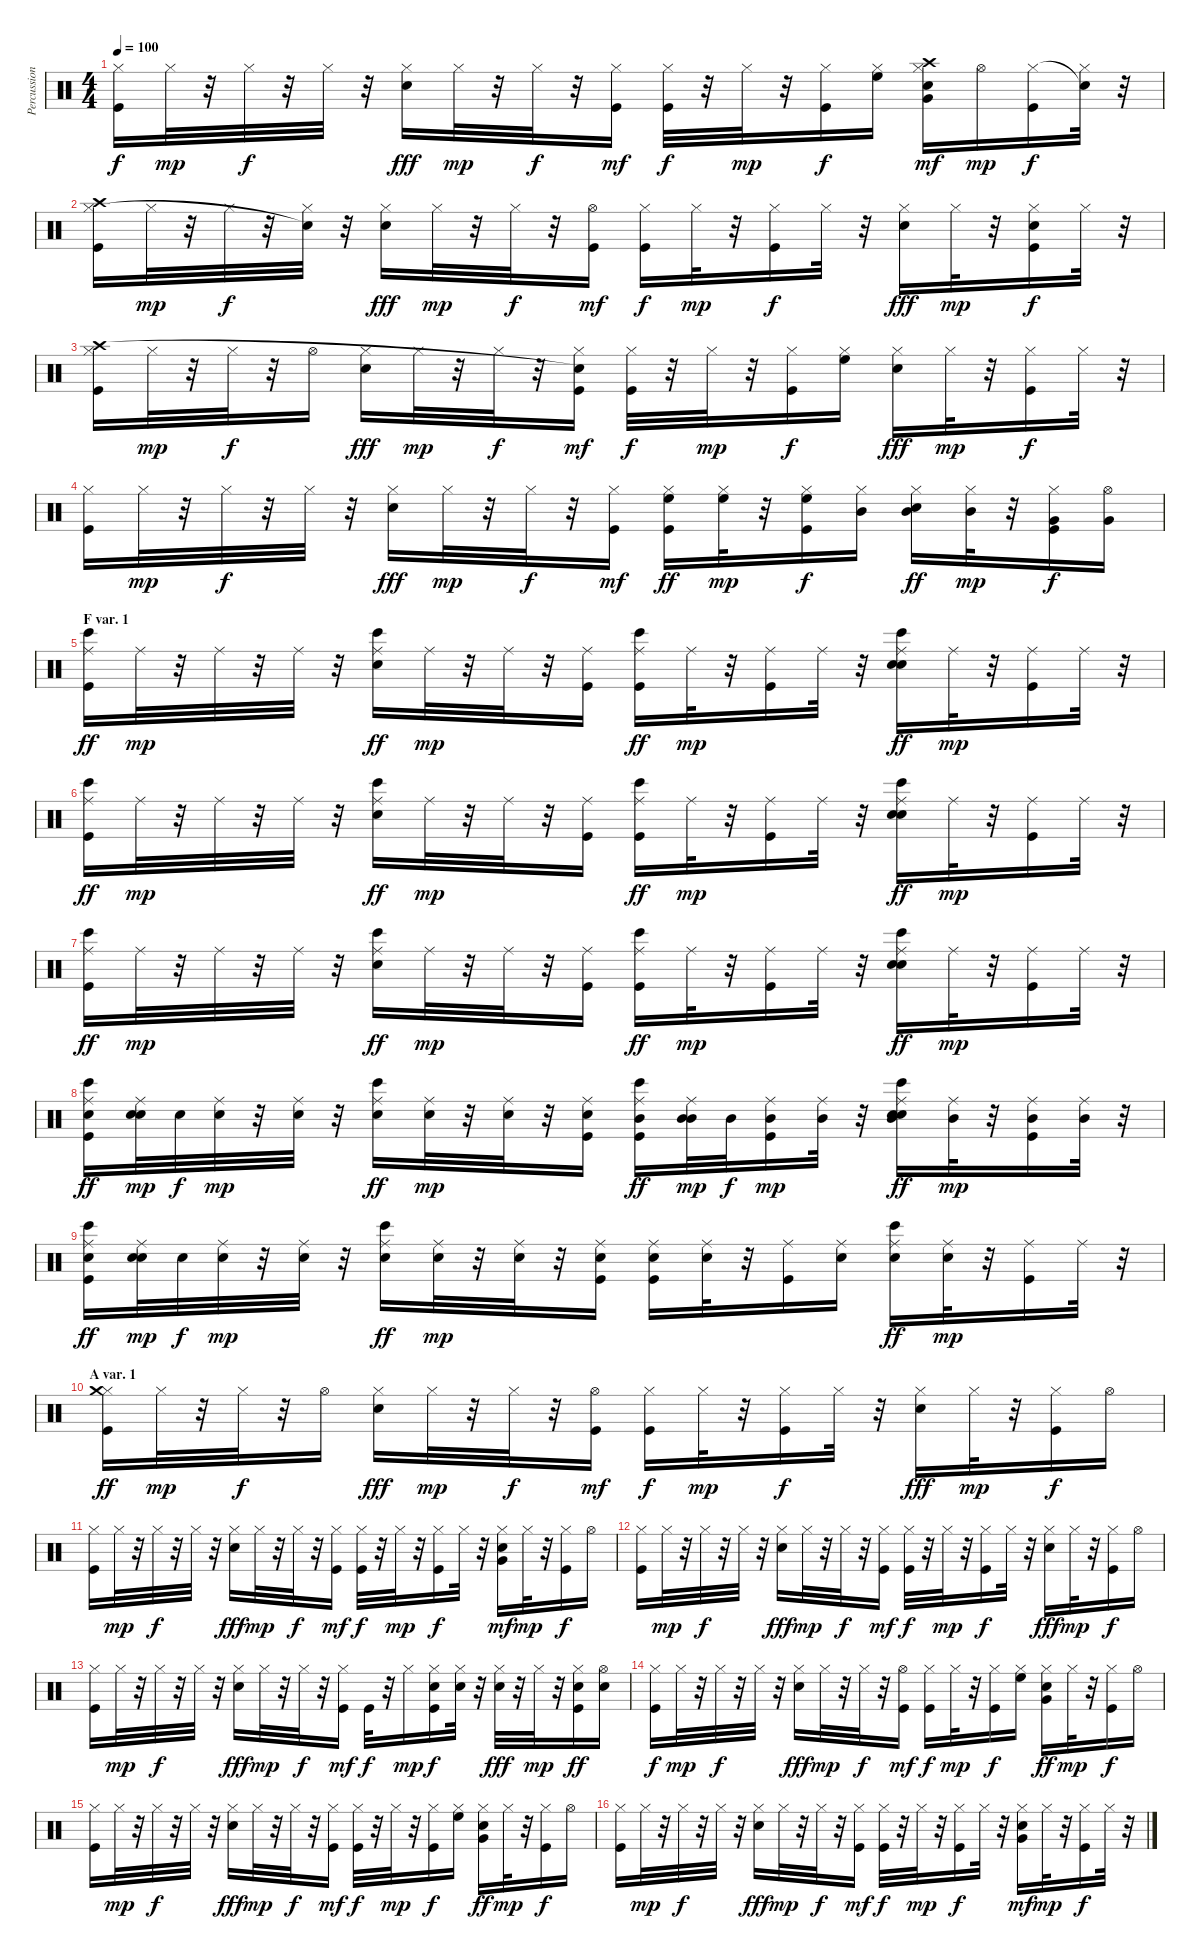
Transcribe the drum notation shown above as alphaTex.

\track ("Percussion" "Percussion") {instrument percussion}
\staff {score}
\articulation defaults
\ts (4 4)
\tempo 100
\clef neutral
\ks c
("Kick (hit)" "Hi-Hat (closed)").16{dy f} "Hi-Hat (closed)".32{dy mp} r.32 "Hi-Hat (closed)".32{dy f} r.32 "Hi-Hat (closed)".32 r.32 ("Electric Snare (hit)" "Hi-Hat (closed)").16{dy fff} "Hi-Hat (closed)".32{dy mp} r.32 "Hi-Hat (closed)".32{dy f} r.32 ("Kick (hit)" "Hi-Hat (closed)").16{dy mf} ("Kick (hit)" "Hi-Hat (closed)").32{dy f} r.32 "Hi-Hat (closed)".32{dy mp} r.32 ("Kick (hit)" "Hi-Hat (closed)").16{dy f} ("Hi-Hat (closed)" "High Floor Tom (hit)").16 ("Electric Snare (hit)" "Hi-Hat (closed)" "Very Low Tom (hit)" "Crash high (hit)").16{dy mf} "Hi-Hat (open)".16{dy mp} ("Kick (hit)" "Hi-Hat (closed)").16{dy f} ("Hi-Hat (closed)" "Snare (hit)"{t}).32 r.32 |
("Kick (hit)" "Hi-Hat (closed)" "Crash high (hit)").16 "Hi-Hat (closed)".32{dy mp} r.32 "Hi-Hat (closed)".32{dy f} r.32 ("Hi-Hat (closed)" "Snare (hit)"{t}).32 r.32 ("Electric Snare (hit)" "Hi-Hat (closed)").16{dy fff} "Hi-Hat (closed)".32{dy mp} r.32 "Hi-Hat (closed)".32{dy f} r.32 ("Kick (hit)" "Hi-Hat (open)").16{dy mf} ("Kick (hit)" "Hi-Hat (closed)").16{dy f} "Hi-Hat (closed)".32{dy mp} r.32 ("Kick (hit)" "Hi-Hat (closed)").16{dy f} "Hi-Hat (closed)".32 r.32 ("Electric Snare (hit)" "Hi-Hat (closed)").16{dy fff} "Hi-Hat (closed)".32{dy mp} r.32 ("Kick (hit)" "Electric Snare (hit)" "Hi-Hat (closed)").16{dy f} "Hi-Hat (closed)".32 r.32 |
("Kick (hit)" "Hi-Hat (closed)" "Crash high (hit)").16 "Hi-Hat (closed)".32{dy mp} r.32 "Hi-Hat (closed)".32{dy f} r.32 "Hi-Hat (open)".16 ("Electric Snare (hit)" "Hi-Hat (closed)").16{dy fff} "Hi-Hat (closed)".32{dy mp} r.32 "Hi-Hat (closed)".32{dy f} r.32 ("Kick (hit)" "Hi-Hat (closed)" "Snare (hit)"{t}).16{dy mf} ("Kick (hit)" "Hi-Hat (closed)").32{dy f} r.32 "Hi-Hat (closed)".32{dy mp} r.32 ("Kick (hit)" "Hi-Hat (closed)").16{dy f} ("Hi-Hat (closed)" "High Floor Tom (hit)").16 ("Electric Snare (hit)" "Hi-Hat (closed)").16{dy fff} "Hi-Hat (closed)".32{dy mp} r.32 ("Kick (hit)" "Hi-Hat (closed)").16{dy f} "Hi-Hat (closed)".32 r.32 |
("Kick (hit)" "Hi-Hat (closed)").16 "Hi-Hat (closed)".32{dy mp} r.32 "Hi-Hat (closed)".32{dy f} r.32 "Hi-Hat (closed)".32 r.32 ("Electric Snare (hit)" "Hi-Hat (closed)").16{dy fff} "Hi-Hat (closed)".32{dy mp} r.32 "Hi-Hat (closed)".32{dy f} r.32 ("Kick (hit)" "Hi-Hat (closed)").16{dy mf} ("Kick (hit)" "Hi-Hat (closed)" "High Floor Tom (hit)").16{dy ff} ("Hi-Hat (closed)" "High Floor Tom (hit)").32{dy mp} r.32 ("Kick (hit)" "Hi-Hat (closed)" "High Floor Tom (hit)").16{dy f} ("Hi-Hat (closed)" "Mid Tom (hit)").16 ("Electric Snare (hit)" "Hi-Hat (closed)" "Mid Tom (hit)").16{dy ff} ("Hi-Hat (closed)" "Mid Tom (hit)").32{dy mp} r.32 ("Kick (hit)" "Hi-Hat (closed)" "Very Low Tom (hit)").16{dy f} ("Very Low Tom (hit)" "Hi-Hat (open)").16 |
\section ("" "F var. 1")
("Kick (hit)" "Ride (middle)" "Bongo High (hit)").16{dy ff} "Ride (middle)".32{dy mp} r.32 "Ride (middle)".32 r.32 "Ride (middle)".32 r.32 ("Electric Snare (hit)" "Ride (middle)" "Bongo High (hit)").16{dy ff} "Ride (middle)".32{dy mp} r.32 "Ride (middle)".32 r.32 ("Kick (hit)" "Ride (middle)").16 ("Kick (hit)" "Ride (middle)" "Bongo High (hit)").16{dy ff} "Ride (middle)".32{dy mp} r.32 ("Kick (hit)" "Ride (middle)").16 "Ride (middle)".32 r.32 ("Hand Clap (hit)" "Electric Snare (hit)" "Ride (middle)" "Bongo High (hit)").16{dy ff} "Ride (middle)".32{dy mp} r.32 ("Kick (hit)" "Ride (middle)").16 "Ride (middle)".32 r.32 |
("Kick (hit)" "Ride (middle)" "Bongo High (hit)").16{dy ff} "Ride (middle)".32{dy mp} r.32 "Ride (middle)".32 r.32 "Ride (middle)".32 r.32 ("Electric Snare (hit)" "Ride (middle)" "Bongo High (hit)").16{dy ff} "Ride (middle)".32{dy mp} r.32 "Ride (middle)".32 r.32 ("Kick (hit)" "Ride (middle)").16 ("Kick (hit)" "Ride (middle)" "Bongo High (hit)").16{dy ff} "Ride (middle)".32{dy mp} r.32 ("Kick (hit)" "Ride (middle)").16 "Ride (middle)".32 r.32 ("Hand Clap (hit)" "Electric Snare (hit)" "Ride (middle)" "Bongo High (hit)").16{dy ff} "Ride (middle)".32{dy mp} r.32 ("Kick (hit)" "Ride (middle)").16 "Ride (middle)".32 r.32 |
("Kick (hit)" "Ride (middle)" "Bongo High (hit)").16{dy ff} "Ride (middle)".32{dy mp} r.32 "Ride (middle)".32 r.32 "Ride (middle)".32 r.32 ("Electric Snare (hit)" "Ride (middle)" "Bongo High (hit)").16{dy ff} "Ride (middle)".32{dy mp} r.32 "Ride (middle)".32 r.32 ("Kick (hit)" "Ride (middle)").16 ("Kick (hit)" "Ride (middle)" "Bongo High (hit)").16{dy ff} "Ride (middle)".32{dy mp} r.32 ("Kick (hit)" "Ride (middle)").16 "Ride (middle)".32 r.32 ("Hand Clap (hit)" "Electric Snare (hit)" "Ride (middle)" "Bongo High (hit)").16{dy ff} "Ride (middle)".32{dy mp} r.32 ("Kick (hit)" "Ride (middle)").16 "Ride (middle)".32 r.32 |
("Kick (hit)" "Electric Snare (hit)" "Ride (middle)" "Bongo High (hit)").16{dy ff} ("Electric Snare (hit)" "Ride (middle)" "Electric Snare (hit)").32{dy mp} "Electric Snare (hit)".32{dy f} ("Electric Snare (hit)" "Ride (middle)").32{dy mp} r.32 ("Electric Snare (hit)" "Ride (middle)").32 r.32 ("Electric Snare (hit)" "Ride (middle)" "Bongo High (hit)").16{dy ff} ("Electric Snare (hit)" "Ride (middle)").32{dy mp} r.32 ("Electric Snare (hit)" "Ride (middle)").32 r.32 ("Kick (hit)" "Electric Snare (hit)" "Ride (middle)").16 ("Kick (hit)" "Mid Tom (hit)" "Ride (middle)" "Bongo High (hit)").16{dy ff} ("Mid Tom (hit)" "Ride (middle)" "Mid Tom (hit)").32{dy mp} "Mid Tom (hit)".32{dy f} ("Kick (hit)" "Mid Tom (hit)" "Ride (middle)").16{dy mp} ("Mid Tom (hit)" "Ride (middle)").32 r.32 ("Hand Clap (hit)" "Electric Snare (hit)" "Mid Tom (hit)" "Ride (middle)" "Bongo High (hit)").16{dy ff} ("Mid Tom (hit)" "Ride (middle)").32{dy mp} r.32 ("Kick (hit)" "Mid Tom (hit)" "Ride (middle)").16 ("Mid Tom (hit)" "Ride (middle)").32 r.32 |
("Kick (hit)" "Electric Snare (hit)" "Ride (middle)" "Bongo High (hit)").16{dy ff} ("Electric Snare (hit)" "Ride (middle)" "Electric Snare (hit)").32{dy mp} "Electric Snare (hit)".32{dy f} ("Electric Snare (hit)" "Ride (middle)").32{dy mp} r.32 ("Electric Snare (hit)" "Ride (middle)").32 r.32 ("Electric Snare (hit)" "Ride (middle)" "Bongo High (hit)").16{dy ff} ("Electric Snare (hit)" "Ride (middle)").32{dy mp} r.32 ("Electric Snare (hit)" "Ride (middle)").32 r.32 ("Kick (hit)" "Electric Snare (hit)" "Ride (middle)").16 ("Kick (hit)" "Electric Snare (hit)" "Ride (middle)").16 ("Electric Snare (hit)" "Ride (middle)").32 r.32 ("Kick (hit)" "Ride (middle)").16 ("Electric Snare (hit)" "Ride (middle)").16 ("Electric Snare (hit)" "Ride (middle)" "Bongo High (hit)").16{dy ff} ("Electric Snare (hit)" "Ride (middle)").32{dy mp} r.32 ("Kick (hit)" "Ride (middle)").16 "Ride (middle)".32 r.32 |
\section ("" "A var. 1")
("Kick (hit)" "Hi-Hat (closed)" "Crash medium (hit)").16{dy ff} "Hi-Hat (closed)".32{dy mp} r.32 "Hi-Hat (closed)".32{dy f} r.32 "Hi-Hat (open)".16 ("Electric Snare (hit)" "Hi-Hat (closed)").16{dy fff} "Hi-Hat (closed)".32{dy mp} r.32 "Hi-Hat (closed)".32{dy f} r.32 ("Kick (hit)" "Hi-Hat (open)").16{dy mf} ("Kick (hit)" "Hi-Hat (closed)").16{dy f} "Hi-Hat (closed)".32{dy mp} r.32 ("Kick (hit)" "Hi-Hat (closed)").16{dy f} "Hi-Hat (closed)".32 r.32 ("Electric Snare (hit)" "Hi-Hat (closed)").16{dy fff} "Hi-Hat (closed)".32{dy mp} r.32 ("Kick (hit)" "Hi-Hat (closed)").16{dy f} "Hi-Hat (open)".16 |
("Kick (hit)" "Hi-Hat (closed)").16 "Hi-Hat (closed)".32{dy mp} r.32 "Hi-Hat (closed)".32{dy f} r.32 "Hi-Hat (closed)".32 r.32 ("Electric Snare (hit)" "Hi-Hat (closed)").16{dy fff} "Hi-Hat (closed)".32{dy mp} r.32 "Hi-Hat (closed)".32{dy f} r.32 ("Kick (hit)" "Hi-Hat (closed)").16{dy mf} ("Kick (hit)" "Hi-Hat (closed)").32{dy f} r.32 "Hi-Hat (closed)".32{dy mp} r.32 ("Kick (hit)" "Hi-Hat (closed)").16{dy f} "Hi-Hat (closed)".32 r.32 ("Electric Snare (hit)" "Hi-Hat (closed)" "Very Low Tom (hit)").16{dy mf} "Hi-Hat (closed)".32{dy mp} r.32 ("Kick (hit)" "Hi-Hat (closed)").16{dy f} "Hi-Hat (open)".16 |
("Kick (hit)" "Hi-Hat (closed)").16 "Hi-Hat (closed)".32{dy mp} r.32 "Hi-Hat (closed)".32{dy f} r.32 "Hi-Hat (closed)".32 r.32 ("Electric Snare (hit)" "Hi-Hat (closed)").16{dy fff} "Hi-Hat (closed)".32{dy mp} r.32 "Hi-Hat (closed)".32{dy f} r.32 ("Kick (hit)" "Hi-Hat (closed)").16{dy mf} ("Kick (hit)" "Hi-Hat (closed)").32{dy f} r.32 "Hi-Hat (closed)".32{dy mp} r.32 ("Kick (hit)" "Hi-Hat (closed)").16{dy f} "Hi-Hat (closed)".32 r.32 ("Electric Snare (hit)" "Hi-Hat (closed)").16{dy fff} "Hi-Hat (closed)".32{dy mp} r.32 ("Kick (hit)" "Hi-Hat (closed)").16{dy f} "Hi-Hat (open)".16 |
("Kick (hit)" "Hi-Hat (closed)").16 "Hi-Hat (closed)".32{dy mp} r.32 "Hi-Hat (closed)".32{dy f} r.32 "Hi-Hat (closed)".32 r.32 ("Electric Snare (hit)" "Hi-Hat (closed)").16{dy fff} "Hi-Hat (closed)".32{dy mp} r.32 "Hi-Hat (closed)".32{dy f} r.32 ("Kick (hit)" "Hi-Hat (closed)").16{dy mf} "Kick (hit)".32{dy f} r.32 "Hi-Hat (closed)".16{dy mp} ("Kick (hit)" "Electric Snare (hit)" "Hi-Hat (closed)").16{dy f} ("Electric Snare (hit)" "Hi-Hat (closed)").32 r.32 ("Electric Snare (hit)" "Hi-Hat (closed)").32{dy fff} r.32 "Hi-Hat (closed)".32{dy mp} r.32 ("Kick (hit)" "Electric Snare (hit)" "Hi-Hat (closed)").16{dy ff} ("Electric Snare (hit)" "Hi-Hat (open)").16 |
("Kick (hit)" "Hi-Hat (closed)").16{dy f} "Hi-Hat (closed)".32{dy mp} r.32 "Hi-Hat (closed)".32{dy f} r.32 "Hi-Hat (closed)".32 r.32 ("Electric Snare (hit)" "Hi-Hat (closed)").16{dy fff} "Hi-Hat (closed)".32{dy mp} r.32 "Hi-Hat (closed)".32{dy f} r.32 ("Kick (hit)" "Hi-Hat (open)").16{dy mf} ("Kick (hit)" "Hi-Hat (closed)").16{dy f} "Hi-Hat (closed)".32{dy mp} r.32 ("Kick (hit)" "Hi-Hat (closed)").16{dy f} ("Hi-Hat (closed)" "High Floor Tom (hit)").16 ("Electric Snare (hit)" "Hi-Hat (closed)" "Very Low Tom (hit)").16{dy ff} "Hi-Hat (closed)".32{dy mp} r.32 ("Kick (hit)" "Hi-Hat (closed)").16{dy f} "Hi-Hat (open)".16 |
("Kick (hit)" "Hi-Hat (closed)").16 "Hi-Hat (closed)".32{dy mp} r.32 "Hi-Hat (closed)".32{dy f} r.32 "Hi-Hat (closed)".32 r.32 ("Electric Snare (hit)" "Hi-Hat (closed)").16{dy fff} "Hi-Hat (closed)".32{dy mp} r.32 "Hi-Hat (closed)".32{dy f} r.32 ("Kick (hit)" "Hi-Hat (closed)").16{dy mf} ("Kick (hit)" "Hi-Hat (closed)").32{dy f} r.32 "Hi-Hat (closed)".32{dy mp} r.32 ("Kick (hit)" "Hi-Hat (closed)").16{dy f} ("Hi-Hat (closed)" "High Floor Tom (hit)").16 ("Electric Snare (hit)" "Hi-Hat (closed)" "Very Low Tom (hit)").16{dy ff} "Hi-Hat (closed)".32{dy mp} r.32 ("Kick (hit)" "Hi-Hat (closed)").16{dy f} "Hi-Hat (open)".16 |
("Kick (hit)" "Hi-Hat (closed)").16 "Hi-Hat (closed)".32{dy mp} r.32 "Hi-Hat (closed)".32{dy f} r.32 "Hi-Hat (closed)".32 r.32 ("Electric Snare (hit)" "Hi-Hat (closed)").16{dy fff} "Hi-Hat (closed)".32{dy mp} r.32 "Hi-Hat (closed)".32{dy f} r.32 ("Kick (hit)" "Hi-Hat (closed)").16{dy mf} ("Kick (hit)" "Hi-Hat (closed)").32{dy f} r.32 "Hi-Hat (closed)".32{dy mp} r.32 ("Kick (hit)" "Hi-Hat (closed)").16{dy f} "Hi-Hat (closed)".32 r.32 ("Electric Snare (hit)" "Hi-Hat (closed)" "Very Low Tom (hit)").16{dy mf} "Hi-Hat (closed)".32{dy mp} r.32 ("Kick (hit)" "Hi-Hat (closed)").16{dy f} "Hi-Hat (closed)".32 r.32
